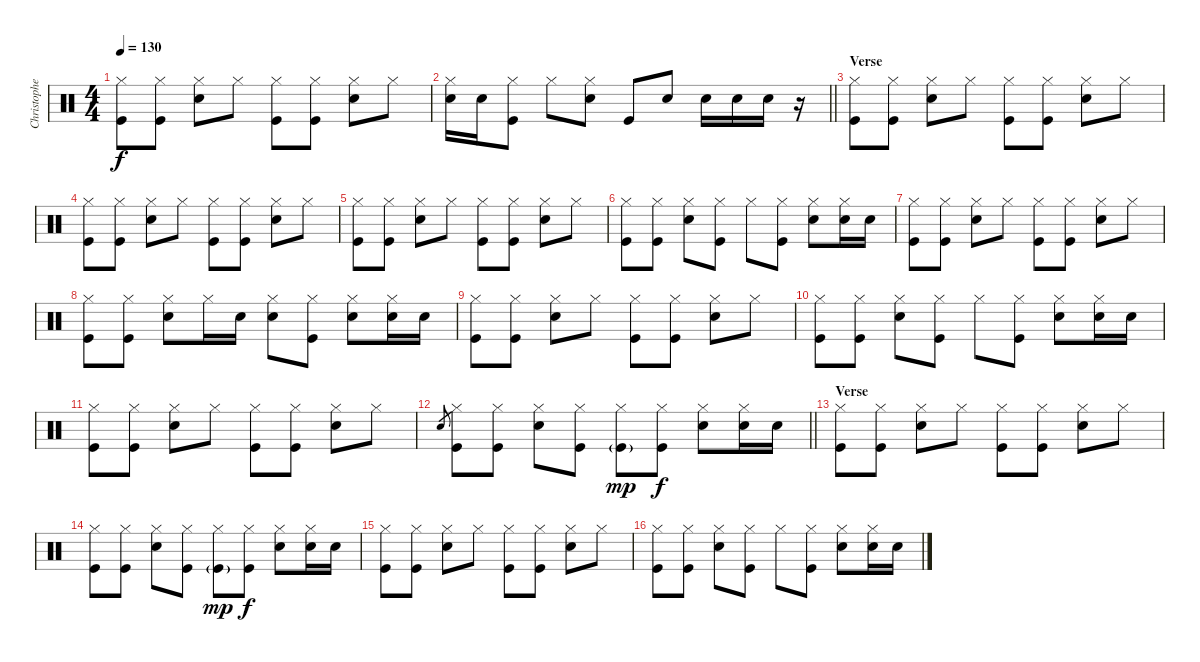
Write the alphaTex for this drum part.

\track ("Christopher - Drums" "Christophe") {instrument percussion}
\staff {score}
\articulation defaults
\ts (4 4)
\tempo 130
\clef neutral
\ks c
("Hi-Hat (closed)" "Kick (hit)").8{dy f} ("Hi-Hat (closed)" "Kick (hit)").8 ("Hi-Hat (closed)" "Snare (hit) 2").8 "Hi-Hat (closed)".8 ("Hi-Hat (closed)" "Kick (hit)").8 ("Hi-Hat (closed)" "Kick (hit)").8 ("Hi-Hat (closed)" "Snare (hit) 2").8 "Hi-Hat (closed)".8 |
\barLineRight lightlight
("Hi-Hat (closed)" "Snare (hit) 2").16 "Snare (hit) 2".16 ("Hi-Hat (closed)" "Kick (hit)").8 "Hi-Hat (closed)".8 ("Hi-Hat (closed)" "Snare (hit) 2").8 "Kick (hit)".8 "Snare (hit) 2".8 "Snare (hit) 2".16 "Snare (hit) 2".16 "Snare (hit) 2".16 r.16 |
\section ("" "Verse")
("Hi-Hat (closed)" "Kick (hit)").8 ("Hi-Hat (closed)" "Kick (hit)").8 ("Hi-Hat (closed)" "Snare (hit) 2").8 "Hi-Hat (closed)".8 ("Hi-Hat (closed)" "Kick (hit)").8 ("Hi-Hat (closed)" "Kick (hit)").8 ("Hi-Hat (closed)" "Snare (hit) 2").8 "Hi-Hat (closed)".8 |
("Hi-Hat (closed)" "Kick (hit)").8 ("Hi-Hat (closed)" "Kick (hit)").8 ("Hi-Hat (closed)" "Snare (hit) 2").8 "Hi-Hat (closed)".8 ("Hi-Hat (closed)" "Kick (hit)").8 ("Hi-Hat (closed)" "Kick (hit)").8 ("Hi-Hat (closed)" "Snare (hit) 2").8 "Hi-Hat (closed)".8 |
("Hi-Hat (closed)" "Kick (hit)").8 ("Hi-Hat (closed)" "Kick (hit)").8 ("Hi-Hat (closed)" "Snare (hit) 2").8 "Hi-Hat (closed)".8 ("Hi-Hat (closed)" "Kick (hit)").8 ("Hi-Hat (closed)" "Kick (hit)").8 ("Hi-Hat (closed)" "Snare (hit) 2").8 "Hi-Hat (closed)".8 |
("Hi-Hat (closed)" "Kick (hit)").8 ("Hi-Hat (closed)" "Kick (hit)").8 ("Hi-Hat (closed)" "Snare (hit) 2").8 ("Hi-Hat (closed)" "Kick (hit)").8 "Hi-Hat (closed)".8 ("Hi-Hat (closed)" "Kick (hit)").8 ("Hi-Hat (closed)" "Snare (hit) 2").8 ("Hi-Hat (closed)" "Snare (hit) 2").16 "Snare (hit) 2".16 |
("Hi-Hat (closed)" "Kick (hit)").8 ("Hi-Hat (closed)" "Kick (hit)").8 ("Hi-Hat (closed)" "Snare (hit) 2").8 "Hi-Hat (closed)".8 ("Hi-Hat (closed)" "Kick (hit)").8 ("Hi-Hat (closed)" "Kick (hit)").8 ("Hi-Hat (closed)" "Snare (hit) 2").8 "Hi-Hat (closed)".8 |
("Hi-Hat (closed)" "Kick (hit)").8 ("Hi-Hat (closed)" "Kick (hit)").8 ("Hi-Hat (closed)" "Snare (hit) 2").8 "Hi-Hat (closed)".16 "Snare (hit) 2".16 ("Hi-Hat (closed)" "Snare (hit) 2").8 ("Hi-Hat (closed)" "Kick (hit)").8 ("Hi-Hat (closed)" "Snare (hit) 2").8 ("Hi-Hat (closed)" "Snare (hit) 2").16 "Snare (hit) 2".16 |
("Hi-Hat (closed)" "Kick (hit)").8 ("Hi-Hat (closed)" "Kick (hit)").8 ("Hi-Hat (closed)" "Snare (hit) 2").8 "Hi-Hat (closed)".8 ("Hi-Hat (closed)" "Kick (hit)").8 ("Hi-Hat (closed)" "Kick (hit)").8 ("Hi-Hat (closed)" "Snare (hit) 2").8 "Hi-Hat (closed)".8 |
("Hi-Hat (closed)" "Kick (hit)").8 ("Hi-Hat (closed)" "Kick (hit)").8 ("Hi-Hat (closed)" "Snare (hit) 2").8 ("Hi-Hat (closed)" "Kick (hit)").8 "Hi-Hat (closed)".8 ("Hi-Hat (closed)" "Kick (hit)").8 ("Hi-Hat (closed)" "Snare (hit) 2").8 ("Hi-Hat (closed)" "Snare (hit) 2").16 "Snare (hit) 2".16 |
("Hi-Hat (closed)" "Kick (hit)").8 ("Hi-Hat (closed)" "Kick (hit)").8 ("Hi-Hat (closed)" "Snare (hit) 2").8 "Hi-Hat (closed)".8 ("Hi-Hat (closed)" "Kick (hit)").8 ("Hi-Hat (closed)" "Kick (hit)").8 ("Hi-Hat (closed)" "Snare (hit) 2").8 "Hi-Hat (closed)".8 |
\barLineRight lightlight "Snare (hit) 2".8{gr}
("Hi-Hat (closed)" "Kick (hit)").8 ("Hi-Hat (closed)" "Kick (hit)").8 ("Hi-Hat (closed)" "Snare (hit) 2").8 ("Hi-Hat (closed)" "Kick (hit)").8 ("Hi-Hat (closed)" "Kick (hit)"{g}).8{dy mp} ("Hi-Hat (closed)" "Kick (hit)").8{dy f} ("Hi-Hat (closed)" "Snare (hit) 2").8 ("Hi-Hat (closed)" "Snare (hit) 2").16 "Snare (hit) 2".16 |
\section ("" "Verse")
("Hi-Hat (closed)" "Kick (hit)").8 ("Hi-Hat (closed)" "Kick (hit)").8 ("Hi-Hat (closed)" "Snare (hit) 2").8 "Hi-Hat (closed)".8 ("Hi-Hat (closed)" "Kick (hit)").8 ("Hi-Hat (closed)" "Kick (hit)").8 ("Hi-Hat (closed)" "Snare (hit) 2").8 "Hi-Hat (closed)".8 |
("Hi-Hat (closed)" "Kick (hit)").8 ("Hi-Hat (closed)" "Kick (hit)").8 ("Hi-Hat (closed)" "Snare (hit) 2").8 ("Hi-Hat (closed)" "Kick (hit)").8 ("Hi-Hat (closed)" "Kick (hit)"{g}).8{dy mp} ("Hi-Hat (closed)" "Kick (hit)").8{dy f} ("Hi-Hat (closed)" "Snare (hit) 2").8 ("Hi-Hat (closed)" "Snare (hit) 2").16 "Snare (hit) 2".16 |
("Hi-Hat (closed)" "Kick (hit)").8 ("Hi-Hat (closed)" "Kick (hit)").8 ("Hi-Hat (closed)" "Snare (hit) 2").8 "Hi-Hat (closed)".8 ("Hi-Hat (closed)" "Kick (hit)").8 ("Hi-Hat (closed)" "Kick (hit)").8 ("Hi-Hat (closed)" "Snare (hit) 2").8 "Hi-Hat (closed)".8 |
("Hi-Hat (closed)" "Kick (hit)").8 ("Hi-Hat (closed)" "Kick (hit)").8 ("Hi-Hat (closed)" "Snare (hit) 2").8 ("Hi-Hat (closed)" "Kick (hit)").8 "Hi-Hat (closed)".8 ("Hi-Hat (closed)" "Kick (hit)").8 ("Hi-Hat (closed)" "Snare (hit) 2").8 ("Hi-Hat (closed)" "Snare (hit) 2").16 "Snare (hit) 2".16
